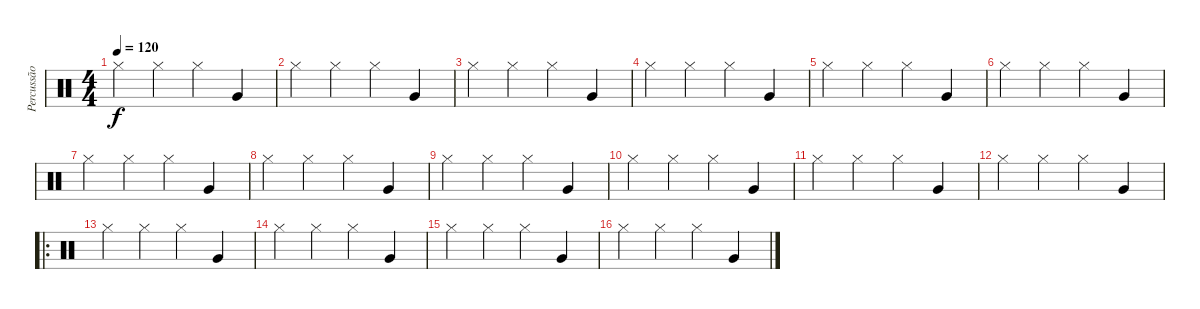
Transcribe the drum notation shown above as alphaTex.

\track ("Percussão" "Percussão") {instrument percussion}
\staff {score}
\articulation defaults
\ts (4 4)
\tempo 120
\clef neutral
\ks c "Hi-Hat (closed)".4{dy f} "Hi-Hat (closed)".4 "Hi-Hat (closed)".4 "Very Low Tom (hit)".4
|
"Hi-Hat (closed)".4 "Hi-Hat (closed)".4 "Hi-Hat (closed)".4 "Very Low Tom (hit)".4 |
"Hi-Hat (closed)".4 "Hi-Hat (closed)".4 "Hi-Hat (closed)".4 "Very Low Tom (hit)".4 |
"Hi-Hat (closed)".4 "Hi-Hat (closed)".4 "Hi-Hat (closed)".4 "Very Low Tom (hit)".4 |
"Hi-Hat (closed)".4 "Hi-Hat (closed)".4 "Hi-Hat (closed)".4 "Very Low Tom (hit)".4 |
"Hi-Hat (closed)".4 "Hi-Hat (closed)".4 "Hi-Hat (closed)".4 "Very Low Tom (hit)".4 |
"Hi-Hat (closed)".4 "Hi-Hat (closed)".4 "Hi-Hat (closed)".4 "Very Low Tom (hit)".4 |
"Hi-Hat (closed)".4 "Hi-Hat (closed)".4 "Hi-Hat (closed)".4 "Very Low Tom (hit)".4 |
"Hi-Hat (closed)".4 "Hi-Hat (closed)".4 "Hi-Hat (closed)".4 "Very Low Tom (hit)".4 |
"Hi-Hat (closed)".4 "Hi-Hat (closed)".4 "Hi-Hat (closed)".4 "Very Low Tom (hit)".4 |
"Hi-Hat (closed)".4 "Hi-Hat (closed)".4 "Hi-Hat (closed)".4 "Very Low Tom (hit)".4 |
"Hi-Hat (closed)".4 "Hi-Hat (closed)".4 "Hi-Hat (closed)".4 "Very Low Tom (hit)".4 |
\ro "Hi-Hat (closed)".4 "Hi-Hat (closed)".4 "Hi-Hat (closed)".4 "Very Low Tom (hit)".4
|
"Hi-Hat (closed)".4 "Hi-Hat (closed)".4 "Hi-Hat (closed)".4 "Very Low Tom (hit)".4 |
"Hi-Hat (closed)".4 "Hi-Hat (closed)".4 "Hi-Hat (closed)".4 "Very Low Tom (hit)".4 |
"Hi-Hat (closed)".4 "Hi-Hat (closed)".4 "Hi-Hat (closed)".4 "Very Low Tom (hit)".4
